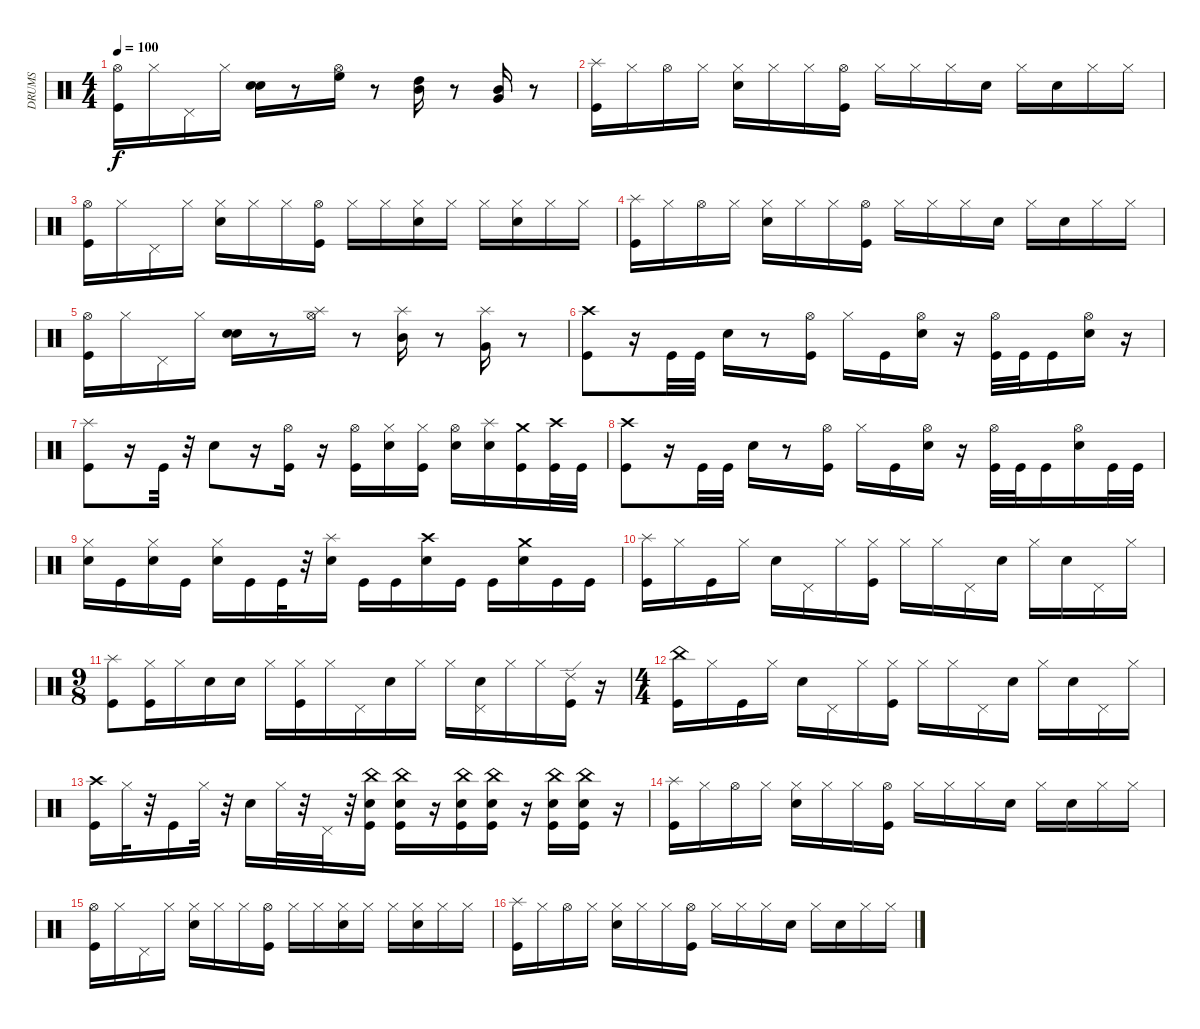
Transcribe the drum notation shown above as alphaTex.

\track ("DRUMS" "DRUMS") {instrument percussion}
\staff {score}
\articulation defaults
\ts (4 4)
\tempo 100
\clef neutral
\ks c
("Hi-Hat (open)" "Kick (hit)").16{dy f} "Hi-Hat (closed)".16 "Pedal Hi-Hat (hit)".16 "Hi-Hat (closed)".16 ("Snare (hit) 2" "Electric Snare (hit)").16 r.8 ("High Floor Tom (hit)" "Hi-Hat (open)").16 r.8 ("Mid Tom (hit)" "High Tom (hit)").16 r.8 ("Very Low Tom (hit)" "Mid Tom (hit)").16 r.8 |
("Splash (hit)" "Kick (hit)").16 "Hi-Hat (closed)".16 "Hi-Hat (open)".16 "Hi-Hat (closed)".16 ("Hi-Hat (closed)" "Snare (hit) 2").16 "Hi-Hat (closed)".16 "Hi-Hat (closed)".16 ("Hi-Hat (open)" "Kick (hit)").16 "Hi-Hat (closed)".16 "Hi-Hat (closed)".16 "Hi-Hat (closed)".16 "Snare (hit) 2".16 "Hi-Hat (closed)".16 "Snare (hit) 2".16 "Hi-Hat (closed)".16 "Hi-Hat (closed)".16 |
("Hi-Hat (open)" "Kick (hit)").16 "Hi-Hat (closed)".16 "Pedal Hi-Hat (hit)".16 "Hi-Hat (closed)".16 ("Snare (hit) 2" "Hi-Hat (closed)").16 "Hi-Hat (closed)".16 "Hi-Hat (closed)".16 ("Kick (hit)" "Hi-Hat (open)").16 "Hi-Hat (closed)".16 "Hi-Hat (closed)".16 ("Snare (hit) 2" "Hi-Hat (closed)").16 "Hi-Hat (closed)".16 "Hi-Hat (closed)".16 ("Snare (hit) 2" "Hi-Hat (closed)").16 "Hi-Hat (closed)".16 "Hi-Hat (closed)".16 |
("Splash (hit)" "Kick (hit)").16 "Hi-Hat (closed)".16 "Hi-Hat (open)".16 "Hi-Hat (closed)".16 ("Hi-Hat (closed)" "Snare (hit) 2").16 "Hi-Hat (closed)".16 "Hi-Hat (closed)".16 ("Hi-Hat (open)" "Kick (hit)").16 "Hi-Hat (closed)".16 "Hi-Hat (closed)".16 "Hi-Hat (closed)".16 "Snare (hit) 2".16 "Hi-Hat (closed)".16 "Snare (hit) 2".16 "Hi-Hat (closed)".16 "Hi-Hat (closed)".16 |
("Hi-Hat (open)" "Kick (hit)").16 "Hi-Hat (closed)".16 "Pedal Hi-Hat (hit)".16 "Hi-Hat (closed)".16 ("Snare (hit) 2" "Electric Snare (hit)").16 r.8 ("Splash (hit)" "Hi-Hat (open)").16 r.8 ("Mid Tom (hit)" "Splash (hit)").16 r.8 ("Very Low Tom (hit)" "Splash (hit)").16 r.8 |
("Crash high (hit)" "Kick (hit)").8 r.16 "Kick (hit)".32 "Kick (hit)".32 "Snare (hit) 2".16 r.8 ("Hi-Hat (open)" "Kick (hit)").16 "Hi-Hat (closed)".16 "Kick (hit)".16 ("Hi-Hat (open)" "Snare (hit) 2").16 r.16 ("Hi-Hat (open)" "Kick (hit)").32 "Kick (hit)".32 "Kick (hit)".16 ("Hi-Hat (open)" "Snare (hit) 2").16 r.16 |
("Splash (hit)" "Kick (hit)").8 r.16 "Kick (hit)".32 r.32 "Snare (hit) 2".8 r.16 ("Hi-Hat (open)" "Kick (hit)").16 r.16 ("Hi-Hat (open)" "Kick (hit)").16 ("Hi-Hat (closed)" "Snare (hit) 2").16 ("Hi-Hat (closed)" "Kick (hit)").16 ("Hi-Hat (open)" "Snare (hit) 2").16 ("Splash (hit)" "Snare (hit) 2").16 ("Crash medium (hit)" "Kick (hit)").16 ("Crash high (hit)" "Kick (hit)").32 "Kick (hit)".32 |
("Crash high (hit)" "Kick (hit)").8 r.16 "Kick (hit)".32 "Kick (hit)".32 "Snare (hit) 2".16 r.8 ("Hi-Hat (open)" "Kick (hit)").16 "Hi-Hat (closed)".16 "Kick (hit)".16 ("Hi-Hat (open)" "Snare (hit) 2").16 r.16 ("Hi-Hat (open)" "Kick (hit)").32 "Kick (hit)".32 "Kick (hit)".16 ("Hi-Hat (open)" "Snare (hit) 2").16 "Kick (hit)".32 "Kick (hit)".32 |
("Hi-Hat (closed)" "Snare (hit) 2").16 "Kick (hit)".16 ("Hi-Hat (closed)" "Snare (hit) 2").16 "Kick (hit)".16 ("Hi-Hat (closed)" "Snare (hit) 2").16 "Kick (hit)".16 "Kick (hit)".32 r.32 ("Splash (hit)" "Snare (hit) 2").16 "Kick (hit)".16 "Kick (hit)".16 ("Crash high (hit)" "Snare (hit) 2").16 "Kick (hit)".16 "Kick (hit)".16 ("Crash medium (hit)" "Snare (hit) 2").16 "Kick (hit)".16 "Kick (hit)".16 |
("Splash (hit)" "Kick (hit)").16 "Hi-Hat (closed)".16 "Kick (hit)".16 "Hi-Hat (closed)".16 "Snare (hit) 2".16 "Pedal Hi-Hat (hit)".16 "Hi-Hat (closed)".16 ("Hi-Hat (closed)" "Kick (hit)").16 "Hi-Hat (closed)".16 "Hi-Hat (closed)".16 "Pedal Hi-Hat (hit)".16 "Snare (hit) 2".16 "Hi-Hat (closed)".16 "Snare (hit) 2".16 "Pedal Hi-Hat (hit)".16 "Hi-Hat (closed)".16 |
\ts (9 8)
("Splash (hit)" "Kick (hit)").8 ("Hi-Hat (closed)" "Kick (hit)").16 "Hi-Hat (closed)".16 "Snare (hit) 2".16 "Snare (hit) 2".16 "Hi-Hat (closed)".16 ("Hi-Hat (closed)" "Kick (hit)").16 "Hi-Hat (closed)".16 "Pedal Hi-Hat (hit)".16 "Snare (hit) 2".16 "Hi-Hat (closed)".16 "Hi-Hat (closed)".16 ("Pedal Hi-Hat (hit)" "Snare (hit) 2").16 "Hi-Hat (closed)".16 "Hi-Hat (closed)".16 ("Ride (edge) 2" "Kick (hit)").16 r.16 |
\ts (4 4)
("China (hit)" "Kick (hit)").16 "Hi-Hat (closed)".16 "Kick (hit)".16 "Hi-Hat (closed)".16 "Snare (hit) 2".16 "Pedal Hi-Hat (hit)".16 "Hi-Hat (closed)".16 ("Hi-Hat (closed)" "Kick (hit)").16 "Hi-Hat (closed)".16 "Hi-Hat (closed)".16 "Pedal Hi-Hat (hit)".16 "Snare (hit) 2".16 "Hi-Hat (closed)".16 "Snare (hit) 2".16 "Pedal Hi-Hat (hit)".16 "Hi-Hat (closed)".16 |
("Crash high (hit)" "Kick (hit)").16 "Hi-Hat (closed)".32 r.32 "Kick (hit)".16 "Hi-Hat (closed)".32 r.32 "Snare (hit) 2".16 "Hi-Hat (closed)".32 r.32 "Pedal Hi-Hat (hit)".32 r.32 ("Kick (hit)" "China (hit)" "Snare (hit) 2").16 ("China (hit)" "Kick (hit)" "Snare (hit) 2").16 r.16 ("Kick (hit)" "China (hit)" "Snare (hit) 2").16 ("Kick (hit)" "China (hit)" "Snare (hit) 2").16 r.16 ("Kick (hit)" "China (hit)" "Snare (hit) 2").16 ("Kick (hit)" "China (hit)" "Snare (hit) 2").16 r.16 |
("Splash (hit)" "Kick (hit)").16 "Hi-Hat (closed)".16 "Hi-Hat (open)".16 "Hi-Hat (closed)".16 ("Hi-Hat (closed)" "Snare (hit) 2").16 "Hi-Hat (closed)".16 "Hi-Hat (closed)".16 ("Hi-Hat (open)" "Kick (hit)").16 "Hi-Hat (closed)".16 "Hi-Hat (closed)".16 "Hi-Hat (closed)".16 "Snare (hit) 2".16 "Hi-Hat (closed)".16 "Snare (hit) 2".16 "Hi-Hat (closed)".16 "Hi-Hat (closed)".16 |
("Hi-Hat (open)" "Kick (hit)").16 "Hi-Hat (closed)".16 "Pedal Hi-Hat (hit)".16 "Hi-Hat (closed)".16 ("Snare (hit) 2" "Hi-Hat (closed)").16 "Hi-Hat (closed)".16 "Hi-Hat (closed)".16 ("Kick (hit)" "Hi-Hat (open)").16 "Hi-Hat (closed)".16 "Hi-Hat (closed)".16 ("Snare (hit) 2" "Hi-Hat (closed)").16 "Hi-Hat (closed)".16 "Hi-Hat (closed)".16 ("Snare (hit) 2" "Hi-Hat (closed)").16 "Hi-Hat (closed)".16 "Hi-Hat (closed)".16 |
("Splash (hit)" "Kick (hit)").16 "Hi-Hat (closed)".16 "Hi-Hat (open)".16 "Hi-Hat (closed)".16 ("Hi-Hat (closed)" "Snare (hit) 2").16 "Hi-Hat (closed)".16 "Hi-Hat (closed)".16 ("Hi-Hat (open)" "Kick (hit)").16 "Hi-Hat (closed)".16 "Hi-Hat (closed)".16 "Hi-Hat (closed)".16 "Snare (hit) 2".16 "Hi-Hat (closed)".16 "Snare (hit) 2".16 "Hi-Hat (closed)".16 "Hi-Hat (closed)".16
